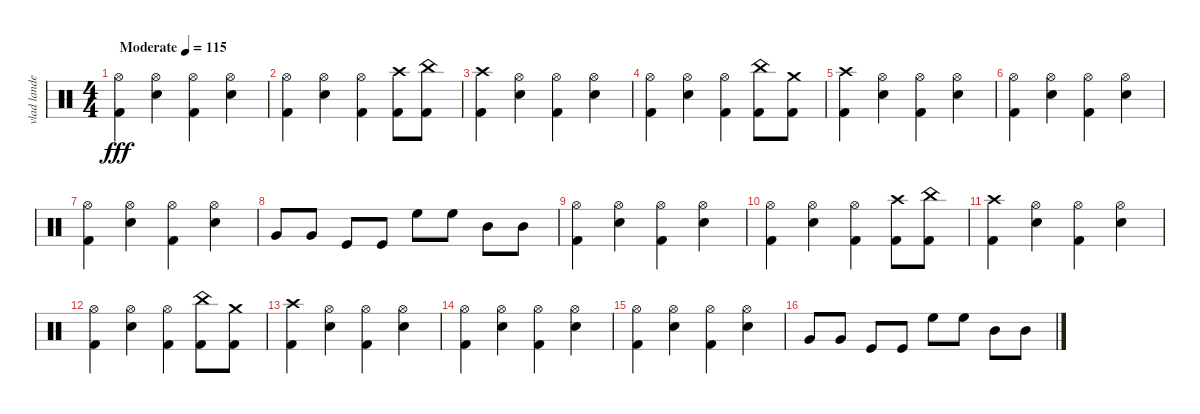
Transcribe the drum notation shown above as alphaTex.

\track ("vlad landeros" "vlad lande") {instrument percussion}
\staff {score}
\articulation defaults
\ts (4 4)
\tempo (115 "Moderate")
\clef neutral
\ks c
("Hi-Hat (open)" "Kick (hit) 2").4{dy fff} ("Hi-Hat (open)" "Electric Snare (hit)").4 ("Hi-Hat (open)" "Kick (hit) 2").4 ("Hi-Hat (open)" "Electric Snare (hit)").4 |
("Hi-Hat (open)" "Kick (hit) 2").4 ("Hi-Hat (open)" "Electric Snare (hit)").4 ("Hi-Hat (open)" "Kick (hit) 2").4 ("Crash high (hit)" "Kick (hit) 2").8 ("China (hit)" "Kick (hit) 2").8 |
("Crash high (hit)" "Kick (hit) 2").4 ("Hi-Hat (open)" "Electric Snare (hit)").4 ("Hi-Hat (open)" "Kick (hit) 2").4 ("Hi-Hat (open)" "Electric Snare (hit)").4 |
("Hi-Hat (open)" "Kick (hit) 2").4 ("Hi-Hat (open)" "Electric Snare (hit)").4 ("Hi-Hat (open)" "Kick (hit) 2").4 ("China (hit)" "Kick (hit) 2").8 ("Crash medium (hit)" "Kick (hit) 2").8 |
("Crash high (hit)" "Kick (hit) 2").4 ("Hi-Hat (open)" "Electric Snare (hit)").4 ("Hi-Hat (open)" "Kick (hit) 2").4 ("Hi-Hat (open)" "Electric Snare (hit)").4 |
("Hi-Hat (open)" "Kick (hit) 2").4 ("Hi-Hat (open)" "Electric Snare (hit)").4 ("Hi-Hat (open)" "Kick (hit) 2").4 ("Hi-Hat (open)" "Electric Snare (hit)").4 |
("Hi-Hat (open)" "Kick (hit) 2").4 ("Hi-Hat (open)" "Electric Snare (hit)").4 ("Hi-Hat (open)" "Kick (hit) 2").4 ("Hi-Hat (open)" "Electric Snare (hit)").4 |
"Very Low Tom (hit)".8 "Very Low Tom (hit)".8 "Kick (hit)".8 "Kick (hit)".8 "High Floor Tom (hit)".8 "High Floor Tom (hit)".8 "Mid Tom (hit)".8 "Mid Tom (hit)".8 |
("Hi-Hat (open)" "Kick (hit) 2").4 ("Hi-Hat (open)" "Electric Snare (hit)").4 ("Hi-Hat (open)" "Kick (hit) 2").4 ("Hi-Hat (open)" "Electric Snare (hit)").4 |
("Hi-Hat (open)" "Kick (hit) 2").4 ("Hi-Hat (open)" "Electric Snare (hit)").4 ("Hi-Hat (open)" "Kick (hit) 2").4 ("Crash high (hit)" "Kick (hit) 2").8 ("China (hit)" "Kick (hit) 2").8 |
("Crash high (hit)" "Kick (hit) 2").4 ("Hi-Hat (open)" "Electric Snare (hit)").4 ("Hi-Hat (open)" "Kick (hit) 2").4 ("Hi-Hat (open)" "Electric Snare (hit)").4 |
("Hi-Hat (open)" "Kick (hit) 2").4 ("Hi-Hat (open)" "Electric Snare (hit)").4 ("Hi-Hat (open)" "Kick (hit) 2").4 ("China (hit)" "Kick (hit) 2").8 ("Crash medium (hit)" "Kick (hit) 2").8 |
("Crash high (hit)" "Kick (hit) 2").4 ("Hi-Hat (open)" "Electric Snare (hit)").4 ("Hi-Hat (open)" "Kick (hit) 2").4 ("Hi-Hat (open)" "Electric Snare (hit)").4 |
("Hi-Hat (open)" "Kick (hit) 2").4 ("Hi-Hat (open)" "Electric Snare (hit)").4 ("Hi-Hat (open)" "Kick (hit) 2").4 ("Hi-Hat (open)" "Electric Snare (hit)").4 |
("Hi-Hat (open)" "Kick (hit) 2").4 ("Hi-Hat (open)" "Electric Snare (hit)").4 ("Hi-Hat (open)" "Kick (hit) 2").4 ("Hi-Hat (open)" "Electric Snare (hit)").4 |
"Very Low Tom (hit)".8 "Very Low Tom (hit)".8 "Kick (hit)".8 "Kick (hit)".8 "High Floor Tom (hit)".8 "High Floor Tom (hit)".8 "Mid Tom (hit)".8 "Mid Tom (hit)".8
